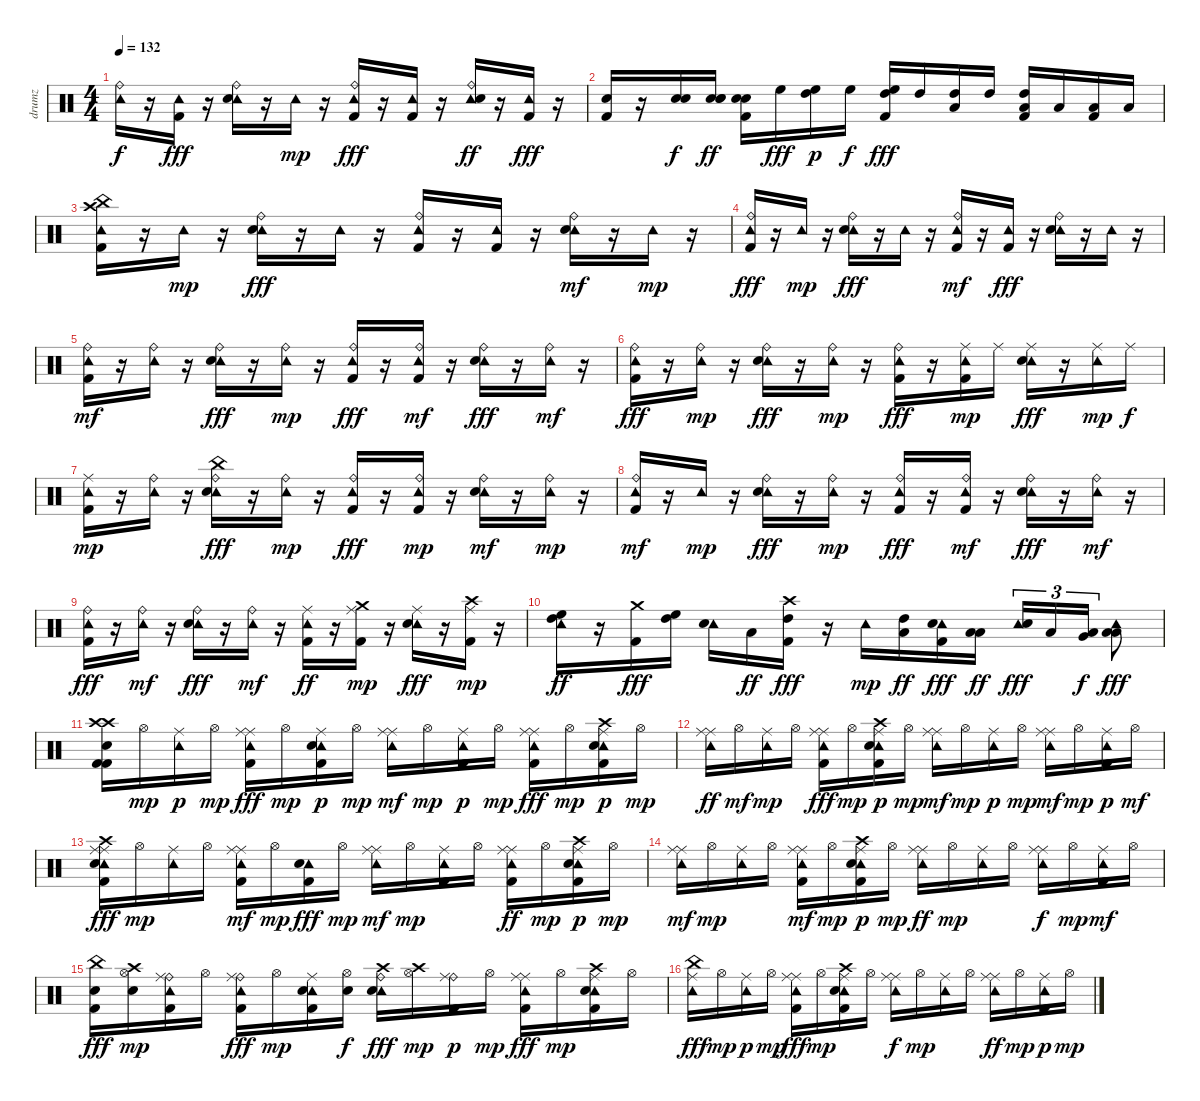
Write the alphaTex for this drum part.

\track ("drumz" "drumz") {instrument percussion}
\staff {score}
\articulation defaults
\ts (4 4)
\tempo 132
\clef neutral
\ks c
("Tambourine (hit)" "Ride (bell)").16{dy f} r.16 ("Tambourine (hit)" "Kick (hit) 2").16{dy fff} r.16 ("Tambourine (hit)" "Snare (hit) 2" "Ride (bell)").16 r.16 "Tambourine (hit)".16{dy mp} r.16 ("Tambourine (hit)" "Kick (hit) 2" "Ride (bell)").16{dy fff} r.16 ("Tambourine (hit)" "Kick (hit) 2").16 r.16 ("Tambourine (hit)" "Snare (hit) 2" "Ride (bell)").16{dy ff} r.16 ("Tambourine (hit)" "Kick (hit) 2").16{dy fff} r.16 |
("Snare (hit) 2" "Kick (hit) 2").16 r.16 ("Snare (hit) 2" "Snare (hit) 2").16{dy f} ("Snare (hit) 2" "Snare (hit) 2" "Snare (hit) 2").16{dy ff} ("Snare (hit) 2" "Kick (hit) 2" "Snare (hit) 2").16 "High Floor Tom (hit)".16{dy fff} ("High Tom (hit)" "High Floor Tom (hit)").16{dy p} "High Floor Tom (hit)".16{dy f} ("High Tom (hit)" "Kick (hit) 2" "High Floor Tom (hit)").16{dy fff} "High Tom (hit)".16 ("High Tom (hit)" "Low Tom (hit)").16 "High Tom (hit)".16 ("High Tom (hit)" "Low Tom (hit)" "Kick (hit) 2").16 "Low Tom (hit)".16 ("Low Floor Tom (hit)" "Kick (hit) 2").16 "Low Floor Tom (hit)".16 |
("Tambourine (hit)" "Crash high (hit)" "Kick (hit) 2" "China (hit)").16 r.16 "Tambourine (hit)".16{dy mp} r.16 ("Tambourine (hit)" "Snare (hit) 2" "Ride (bell)").16{dy fff} r.16 "Tambourine (hit)".16 r.16 ("Tambourine (hit)" "Kick (hit) 2" "Ride (bell)").16 r.16 ("Tambourine (hit)" "Kick (hit) 2").16 r.16 ("Tambourine (hit)" "Snare (hit) 2" "Ride (bell)").16{dy mf} r.16 "Tambourine (hit)".16{dy mp} r.16 |
("Tambourine (hit)" "Kick (hit) 2" "Ride (bell)").16{dy fff} r.16 "Tambourine (hit)".16{dy mp} r.16 ("Tambourine (hit)" "Snare (hit) 2" "Ride (bell)").16{dy fff} r.16 "Tambourine (hit)".16 r.16 ("Tambourine (hit)" "Kick (hit) 2" "Ride (bell)").16{dy mf} r.16 ("Tambourine (hit)" "Kick (hit) 2").16{dy fff} r.16 ("Tambourine (hit)" "Snare (hit) 2" "Ride (bell)").16 r.16 "Tambourine (hit)".16 r.16 |
("Tambourine (hit)" "Kick (hit) 2" "Ride (bell)").16{dy mf} r.16 ("Tambourine (hit)" "Ride (bell)").16 r.16 ("Tambourine (hit)" "Snare (hit) 2" "Ride (bell)").16{dy fff} r.16 ("Tambourine (hit)" "Ride (bell)").16{dy mp} r.16 ("Tambourine (hit)" "Kick (hit) 2" "Ride (bell)").16{dy fff} r.16 ("Tambourine (hit)" "Kick (hit) 2" "Ride (bell)").16{dy mf} r.16 ("Tambourine (hit)" "Snare (hit) 2" "Ride (bell)").16{dy fff} r.16 ("Tambourine (hit)" "Ride (bell)").16{dy mf} r.16 |
("Tambourine (hit)" "Kick (hit) 2" "Ride (bell)").16{dy fff} r.16 ("Tambourine (hit)" "Ride (bell)").16{dy mp} r.16 ("Tambourine (hit)" "Snare (hit) 2" "Ride (bell)").16{dy fff} r.16 ("Tambourine (hit)" "Ride (bell)").16{dy mp} r.16 ("Tambourine (hit)" "Kick (hit) 2" "Ride (bell)").16{dy fff} r.16 ("Tambourine (hit)" "Kick (hit) 2" "Ride (middle)").16{dy mp} "Ride (middle)".16 ("Ride (middle)" "Tambourine (hit)" "Snare (hit) 2").16{dy fff} r.16 ("Tambourine (hit)" "Ride (middle)").16{dy mp} "Ride (middle)".16{dy f} |
("Tambourine (hit)" "Kick (hit) 2" "Ride (middle)").16{dy mp} r.16 ("Tambourine (hit)" "Ride (bell)").16 r.16 ("Tambourine (hit)" "Snare (hit) 2" "China (hit)" "Ride (bell)").16{dy fff} r.16 ("Tambourine (hit)" "Ride (bell)").16{dy mp} r.16 ("Tambourine (hit)" "Kick (hit) 2" "Ride (bell)").16{dy fff} r.16 ("Tambourine (hit)" "Kick (hit) 2" "Ride (bell)").16{dy mp} r.16 ("Tambourine (hit)" "Snare (hit) 2" "Ride (bell)").16{dy mf} r.16 ("Tambourine (hit)" "Ride (bell)").16{dy mp} r.16 |
("Tambourine (hit)" "Kick (hit) 2" "Ride (bell)").16{dy mf} r.16 "Tambourine (hit)".16{dy mp} r.16 ("Tambourine (hit)" "Snare (hit) 2" "Ride (bell)").16{dy fff} r.16 ("Tambourine (hit)" "Ride (bell)").16{dy mp} r.16 ("Tambourine (hit)" "Kick (hit) 2" "Ride (bell)").16{dy fff} r.16 ("Tambourine (hit)" "Kick (hit) 2" "Ride (bell)").16{dy mf} r.16 ("Tambourine (hit)" "Snare (hit) 2" "Ride (bell)").16{dy fff} r.16 ("Tambourine (hit)" "Ride (bell)").16{dy mf} r.16 |
("Tambourine (hit)" "Kick (hit) 2" "Ride (bell)").16{dy fff} r.16 ("Tambourine (hit)" "Ride (bell)").16{dy mf} r.16 ("Tambourine (hit)" "Snare (hit) 2" "Ride (bell)").16{dy fff} r.16 ("Tambourine (hit)" "Ride (bell)").16{dy mf} r.16 ("Tambourine (hit)" "Kick (hit) 2" "Ride (middle)").16{dy ff} r.16 ("Crash medium (hit)" "Kick (hit) 2" "Ride (middle)").16{dy mp} r.16 ("Tambourine (hit)" "Snare (hit) 2" "Ride (middle)").16{dy fff} r.16 ("Crash high (hit)" "Kick (hit) 2" "Ride (middle)").16{dy mp} r.16 |
("Tambourine (hit)" "High Floor Tom (hit)" "High Tom (hit)").16{dy ff} r.16 ("Crash medium (hit)" "Kick (hit) 2").16{dy fff} ("High Tom (hit)" "High Floor Tom (hit)").16 ("Tambourine (hit)" "Snare (hit) 2").16 "Low Tom (hit)".16{dy ff} ("High Tom (hit)" "Crash high (hit)" "Kick (hit) 2").16{dy fff} r.16 "Tambourine (hit)".16{dy mp} ("Low Tom (hit)" "High Tom (hit)").16{dy ff} ("Tambourine (hit)" "Snare (hit) 2" "Kick (hit) 2").16{dy fff} ("Low Floor Tom (hit)" "Low Tom (hit)").16{dy ff} ("Tambourine (hit)" "Snare (hit) 2").16{tu (3 2) dy fff} "Low Tom (hit)".16{tu (3 2)} ("Very Low Tom (hit)" "Low Tom (hit)").16{tu (3 2) dy f} ("Low Floor Tom (hit)" "Tambourine (hit)" "Low Floor Tom (hit)").8{dy fff} |
("Kick (hit) 2" "Crash high (hit)" "Snare (hit) 2" "Kick (hit) 2" "Crash high (hit)").16 "Hi-Hat (open)".16{dy mp} ("Tambourine (hit)" "Ride (middle)").16{dy p} "Hi-Hat (open)".16{dy mp} ("Tambourine (hit)" "Ride (middle)" "Kick (hit) 2" "Ride (middle)").16{dy fff} "Hi-Hat (open)".16{dy mp} ("Tambourine (hit)" "Snare (hit) 2" "Kick (hit) 2" "Ride (middle)").16{dy p} "Hi-Hat (open)".16{dy mp} ("Tambourine (hit)" "Ride (middle)" "Ride (middle)").16{dy mf} "Hi-Hat (open)".16{dy mp} ("Tambourine (hit)" "Kick (hit) 2" "Ride (middle)").16{dy p} "Hi-Hat (open)".16{dy mp} ("Tambourine (hit)" "Ride (middle)" "Kick (hit) 2" "Ride (middle)").16{dy fff} "Hi-Hat (open)".16{dy mp} ("Tambourine (hit)" "Crash high (hit)" "Snare (hit) 2" "Kick (hit) 2" "Ride (middle)").16{dy p} "Hi-Hat (open)".16{dy mp} |
("Tambourine (hit)" "Ride (middle)" "Ride (middle)").16{dy ff} "Hi-Hat (open)".16{dy mf} ("Tambourine (hit)" "Ride (middle)").16{dy mp} "Hi-Hat (open)".16 ("Tambourine (hit)" "Ride (middle)" "Kick (hit) 2" "Ride (middle)").16{dy fff} "Hi-Hat (open)".16{dy mp} ("Tambourine (hit)" "Crash high (hit)" "Snare (hit) 2" "Kick (hit) 2" "Ride (middle)").16{dy p} "Hi-Hat (open)".16{dy mp} ("Tambourine (hit)" "Ride (middle)" "Ride (middle)").16{dy mf} "Hi-Hat (open)".16{dy mp} ("Tambourine (hit)" "Ride (middle)").16{dy p} "Hi-Hat (open)".16{dy mp} ("Tambourine (hit)" "Ride (middle)" "Ride (middle)").16{dy mf} "Hi-Hat (open)".16{dy mp} ("Tambourine (hit)" "Kick (hit) 2" "Ride (middle)").16{dy p} "Hi-Hat (open)".16{dy mf} |
("Tambourine (hit)" "Ride (middle)" "Crash high (hit)" "Snare (hit) 2" "Kick (hit) 2" "Ride (middle)").16{dy fff} "Hi-Hat (open)".16{dy mp} ("Tambourine (hit)" "Ride (middle)").16 "Hi-Hat (open)".16 ("Tambourine (hit)" "Ride (middle)" "Kick (hit) 2" "Ride (middle)").16{dy mf} "Hi-Hat (open)".16{dy mp} ("Tambourine (hit)" "Snare (hit) 2" "Kick (hit) 2").16{dy fff} "Hi-Hat (open)".16{dy mp} ("Tambourine (hit)" "Ride (middle)" "Ride (middle)").16{dy mf} "Hi-Hat (open)".16{dy mp} ("Tambourine (hit)" "Kick (hit) 2" "Ride (middle)").16 "Hi-Hat (open)".16 ("Tambourine (hit)" "Ride (middle)" "Kick (hit) 2" "Ride (middle)").16{dy ff} "Hi-Hat (open)".16{dy mp} ("Tambourine (hit)" "Crash high (hit)" "Snare (hit) 2" "Kick (hit) 2" "Ride (middle)").16{dy p} "Hi-Hat (open)".16{dy mp} |
("Tambourine (hit)" "Ride (middle)" "Ride (middle)").16{dy mf} "Hi-Hat (open)".16{dy mp} ("Tambourine (hit)" "Ride (middle)").16 "Hi-Hat (open)".16 ("Tambourine (hit)" "Ride (middle)" "Kick (hit) 2" "Ride (middle)").16{dy mf} "Hi-Hat (open)".16{dy mp} ("Tambourine (hit)" "Crash high (hit)" "Snare (hit) 2" "Kick (hit) 2" "Ride (middle)").16{dy p} "Hi-Hat (open)".16{dy mp} ("Tambourine (hit)" "Ride (middle)" "Ride (middle)").16{dy ff} "Hi-Hat (open)".16{dy mp} ("Tambourine (hit)" "Ride (middle)").16 "Hi-Hat (open)".16 ("Tambourine (hit)" "Ride (middle)" "Ride (middle)").16{dy f} "Hi-Hat (open)".16{dy mp} ("Tambourine (hit)" "Kick (hit) 2" "Ride (middle)").16{dy mf} "Hi-Hat (open)".16 |
("China (hit)" "Snare (hit) 2" "Kick (hit) 2").16{dy fff} ("Snare (hit) 2" "Crash high (hit)" "Hi-Hat (open)").16{dy mp} ("Tambourine (hit)" "Ride (bell)" "Kick (hit) 2" "Ride (middle)").16 "Hi-Hat (open)".16 ("Tambourine (hit)" "Ride (bell)" "Kick (hit) 2" "Ride (middle)").16{dy fff} "Hi-Hat (open)".16{dy mp} ("Tambourine (hit)" "Snare (hit) 2" "Kick (hit) 2" "Ride (middle)").16 ("Snare (hit) 2" "Hi-Hat (open)").16{dy f} ("Tambourine (hit)" "Ride (bell)" "Snare (hit) 2" "Crash high (hit)").16{dy fff} ("Crash high (hit)" "Hi-Hat (open)").16{dy mp} ("Ride (bell)" "Kick (hit) 2" "Ride (middle)").16{dy p} "Hi-Hat (open)".16{dy mp} ("Tambourine (hit)" "Ride (middle)" "Kick (hit) 2" "Ride (middle)").16{dy fff} "Hi-Hat (open)".16{dy mp} ("Tambourine (hit)" "Crash high (hit)" "Snare (hit) 2" "Kick (hit) 2" "Ride (middle)").16 "Hi-Hat (open)".16 |
("Tambourine (hit)" "Ride (middle)" "China (hit)").16{dy fff} "Hi-Hat (open)".16{dy mp} ("Tambourine (hit)" "Ride (middle)").16{dy p} "Hi-Hat (open)".16{dy mp} ("Tambourine (hit)" "Ride (middle)" "Kick (hit) 2" "Ride (middle)").16{dy fff} "Hi-Hat (open)".16{dy mp} ("Tambourine (hit)" "Crash high (hit)" "Snare (hit) 2" "Kick (hit) 2" "Ride (middle)").16 "Hi-Hat (open)".16 ("Tambourine (hit)" "Ride (middle)" "Ride (middle)").16{dy f} "Hi-Hat (open)".16{dy mp} ("Tambourine (hit)" "Ride (middle)").16 "Hi-Hat (open)".16 ("Tambourine (hit)" "Ride (middle)" "Ride (middle)").16{dy ff} "Hi-Hat (open)".16{dy mp} ("Tambourine (hit)" "Kick (hit) 2" "Ride (middle)").16{dy p} "Hi-Hat (open)".16{dy mp}
